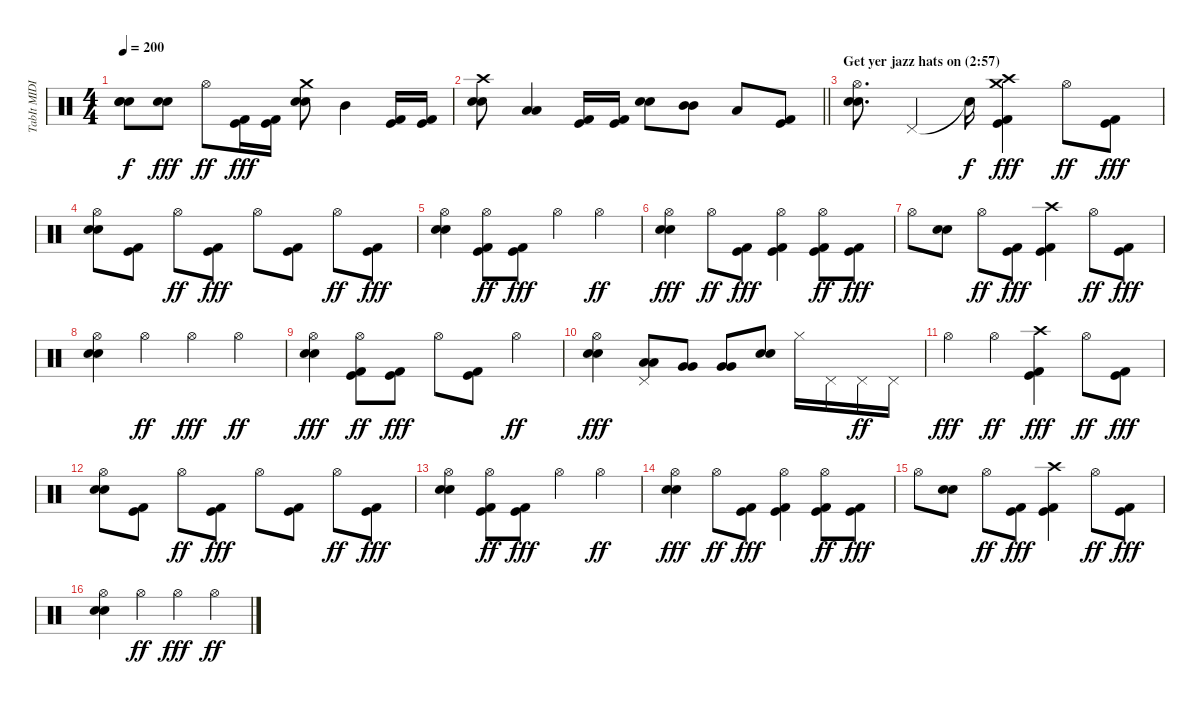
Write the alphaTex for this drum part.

\track ("TabIt MIDI - Track 4" "TabIt MIDI") {instrument percussion}
\staff {score}
\articulation defaults
\ts (4 4)
\tempo 200
\clef neutral
\ks c
("Snare (hit)"{t} "Snare (hit)"{t} "Snare (hit)"{t}).8{dy f} ("Electric Snare (hit)" "Electric Snare (hit)").8{dy fff} "Hi-Hat (open)".8{dy ff} ("Kick (hit)" "Kick (hit) 2").16{dy fff} ("Kick (hit)" "Kick (hit) 2").16 ("Electric Snare (hit)" "Electric Snare (hit)" "Crash medium (hit)").8 "Mid Tom (hit)".4 ("Kick (hit)" "Kick (hit) 2").16 ("Kick (hit)" "Kick (hit) 2").16 |
\barLineRight lightlight
("Electric Snare (hit)" "Electric Snare (hit)" "Crash high (hit)").8 ("Low Tom (hit)" "Low Tom (hit)").4 ("Kick (hit)" "Kick (hit) 2").16 ("Kick (hit)" "Kick (hit) 2").16 ("Electric Snare (hit)" "Electric Snare (hit)").8 ("Mid Tom (hit)" "Mid Tom (hit)").8 "Low Floor Tom (hit)".8 ("Kick (hit)" "Kick (hit) 2").8 |
\section ("" "Get yer jazz hats on (2:57)")
("Electric Snare (hit)" "Electric Snare (hit)" "Hi-Hat (open)").8{d} "Pedal Hi-Hat (hit)".4 "Snare (hit)"{t}.16{dy f} ("Kick (hit)" "Kick (hit) 2" "Crash high (hit)" "Crash medium (hit)").4{dy fff} "Hi-Hat (open)".8{dy ff} ("Kick (hit)" "Kick (hit) 2").8{dy fff} |
("Electric Snare (hit)" "Electric Snare (hit)" "Hi-Hat (open)").8 ("Kick (hit)" "Kick (hit) 2").8 "Hi-Hat (open)".8{dy ff} ("Kick (hit)" "Kick (hit) 2").8{dy fff} "Hi-Hat (open)".8 ("Kick (hit)" "Kick (hit) 2").8 "Hi-Hat (open)".8{dy ff} ("Kick (hit)" "Kick (hit) 2").8{dy fff} |
("Electric Snare (hit)" "Electric Snare (hit)" "Hi-Hat (open)").4 ("Kick (hit)" "Kick (hit) 2" "Hi-Hat (open)").8{dy ff} ("Kick (hit)" "Kick (hit) 2").8{dy fff} "Hi-Hat (open)".4 "Hi-Hat (open)".4{dy ff} |
("Electric Snare (hit)" "Electric Snare (hit)" "Hi-Hat (open)").4{dy fff} "Hi-Hat (open)".8{dy ff} ("Kick (hit)" "Kick (hit) 2").8{dy fff} ("Kick (hit)" "Kick (hit) 2" "Hi-Hat (open)").4 ("Kick (hit)" "Kick (hit) 2" "Hi-Hat (open)").8{dy ff} ("Kick (hit)" "Kick (hit) 2").8{dy fff} |
"Hi-Hat (open)".8 ("Electric Snare (hit)" "Electric Snare (hit)").8 "Hi-Hat (open)".8{dy ff} ("Kick (hit)" "Kick (hit) 2").8{dy fff} ("Kick (hit)" "Kick (hit) 2" "Crash high (hit)").4 "Hi-Hat (open)".8{dy ff} ("Kick (hit)" "Kick (hit) 2").8{dy fff} |
("Electric Snare (hit)" "Electric Snare (hit)" "Hi-Hat (open)").4 "Hi-Hat (open)".4{dy ff} "Hi-Hat (open)".4{dy fff} "Hi-Hat (open)".4{dy ff} |
("Electric Snare (hit)" "Electric Snare (hit)" "Hi-Hat (open)").4{dy fff} ("Kick (hit)" "Kick (hit) 2" "Hi-Hat (open)").8{dy ff} ("Kick (hit)" "Kick (hit) 2").8{dy fff} "Hi-Hat (open)".8 ("Kick (hit)" "Kick (hit) 2").8 "Hi-Hat (open)".4{dy ff} |
("Electric Snare (hit)" "Electric Snare (hit)" "Hi-Hat (open)").4{dy fff} ("Low Tom (hit)" "Low Tom (hit)" "Pedal Hi-Hat (hit)").8 ("Very Low Tom (hit)" "Very Low Tom (hit)").8 ("Very Low Tom (hit)" "Very Low Tom (hit)").8 ("Electric Snare (hit)" "Electric Snare (hit)").8 "Hi-Hat (closed)".16 "Pedal Hi-Hat (hit)".16 "Pedal Hi-Hat (hit)".16{dy ff} "Pedal Hi-Hat (hit)".16 |
"Hi-Hat (open)".4{dy fff} "Hi-Hat (open)".4{dy ff} ("Kick (hit)" "Kick (hit) 2" "Crash high (hit)").4{dy fff} "Hi-Hat (open)".8{dy ff} ("Kick (hit)" "Kick (hit) 2").8{dy fff} |
("Electric Snare (hit)" "Electric Snare (hit)" "Hi-Hat (open)").8 ("Kick (hit)" "Kick (hit) 2").8 "Hi-Hat (open)".8{dy ff} ("Kick (hit)" "Kick (hit) 2").8{dy fff} "Hi-Hat (open)".8 ("Kick (hit)" "Kick (hit) 2").8 "Hi-Hat (open)".8{dy ff} ("Kick (hit)" "Kick (hit) 2").8{dy fff} |
("Electric Snare (hit)" "Electric Snare (hit)" "Hi-Hat (open)").4 ("Kick (hit)" "Kick (hit) 2" "Hi-Hat (open)").8{dy ff} ("Kick (hit)" "Kick (hit) 2").8{dy fff} "Hi-Hat (open)".4 "Hi-Hat (open)".4{dy ff} |
("Electric Snare (hit)" "Electric Snare (hit)" "Hi-Hat (open)").4{dy fff} "Hi-Hat (open)".8{dy ff} ("Kick (hit)" "Kick (hit) 2").8{dy fff} ("Kick (hit)" "Kick (hit) 2" "Hi-Hat (open)").4 ("Kick (hit)" "Kick (hit) 2" "Hi-Hat (open)").8{dy ff} ("Kick (hit)" "Kick (hit) 2").8{dy fff} |
"Hi-Hat (open)".8 ("Electric Snare (hit)" "Electric Snare (hit)").8 "Hi-Hat (open)".8{dy ff} ("Kick (hit)" "Kick (hit) 2").8{dy fff} ("Kick (hit)" "Kick (hit) 2" "Crash high (hit)").4 "Hi-Hat (open)".8{dy ff} ("Kick (hit)" "Kick (hit) 2").8{dy fff} |
("Electric Snare (hit)" "Electric Snare (hit)" "Hi-Hat (open)").4 "Hi-Hat (open)".4{dy ff} "Hi-Hat (open)".4{dy fff} "Hi-Hat (open)".4{dy ff}
